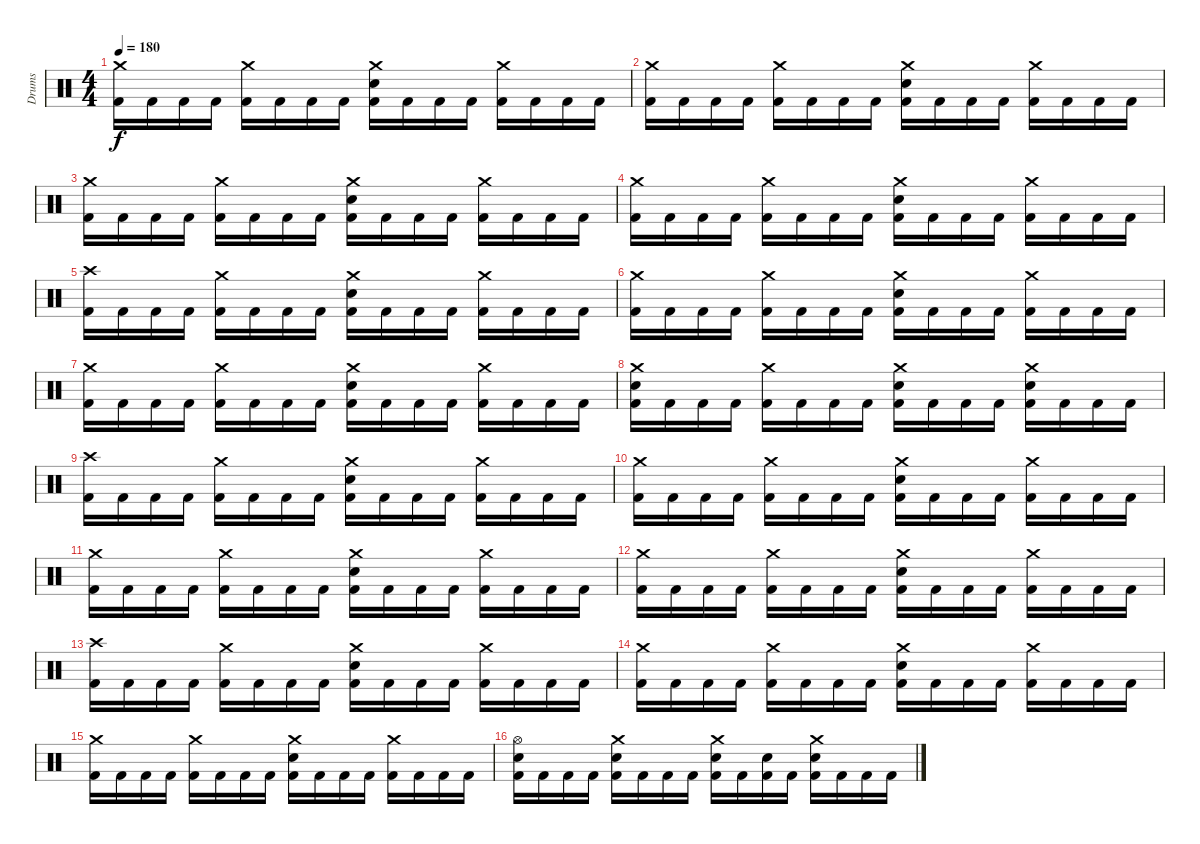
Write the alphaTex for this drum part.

\track ("Drums" "Drums") {instrument percussion}
\staff {score}
\articulation defaults
\ts (4 4)
\tempo 180
\clef neutral
\ks c
("Crash medium (hit)" "Kick (hit) 2").16{dy f} "Kick (hit) 2".16 "Kick (hit) 2".16 "Kick (hit) 2".16 ("Crash medium (hit)" "Kick (hit) 2").16 "Kick (hit) 2".16 "Kick (hit) 2".16 "Kick (hit) 2".16 ("Crash medium (hit)" "Electric Snare (hit)" "Kick (hit) 2").16 "Kick (hit) 2".16 "Kick (hit) 2".16 "Kick (hit) 2".16 ("Crash medium (hit)" "Kick (hit) 2").16 "Kick (hit) 2".16 "Kick (hit) 2".16 "Kick (hit) 2".16 |
("Crash medium (hit)" "Kick (hit) 2").16 "Kick (hit) 2".16 "Kick (hit) 2".16 "Kick (hit) 2".16 ("Crash medium (hit)" "Kick (hit) 2").16 "Kick (hit) 2".16 "Kick (hit) 2".16 "Kick (hit) 2".16 ("Crash medium (hit)" "Electric Snare (hit)" "Kick (hit) 2").16 "Kick (hit) 2".16 "Kick (hit) 2".16 "Kick (hit) 2".16 ("Crash medium (hit)" "Kick (hit) 2").16 "Kick (hit) 2".16 "Kick (hit) 2".16 "Kick (hit) 2".16 |
("Crash medium (hit)" "Kick (hit) 2").16 "Kick (hit) 2".16 "Kick (hit) 2".16 "Kick (hit) 2".16 ("Crash medium (hit)" "Kick (hit) 2").16 "Kick (hit) 2".16 "Kick (hit) 2".16 "Kick (hit) 2".16 ("Crash medium (hit)" "Electric Snare (hit)" "Kick (hit) 2").16 "Kick (hit) 2".16 "Kick (hit) 2".16 "Kick (hit) 2".16 ("Crash medium (hit)" "Kick (hit) 2").16 "Kick (hit) 2".16 "Kick (hit) 2".16 "Kick (hit) 2".16 |
("Crash medium (hit)" "Kick (hit) 2").16 "Kick (hit) 2".16 "Kick (hit) 2".16 "Kick (hit) 2".16 ("Crash medium (hit)" "Kick (hit) 2").16 "Kick (hit) 2".16 "Kick (hit) 2".16 "Kick (hit) 2".16 ("Crash medium (hit)" "Electric Snare (hit)" "Kick (hit) 2").16 "Kick (hit) 2".16 "Kick (hit) 2".16 "Kick (hit) 2".16 ("Crash medium (hit)" "Kick (hit) 2").16 "Kick (hit) 2".16 "Kick (hit) 2".16 "Kick (hit) 2".16 |
("Crash high (hit)" "Kick (hit) 2").16 "Kick (hit) 2".16 "Kick (hit) 2".16 "Kick (hit) 2".16 ("Crash medium (hit)" "Kick (hit) 2").16 "Kick (hit) 2".16 "Kick (hit) 2".16 "Kick (hit) 2".16 ("Crash medium (hit)" "Electric Snare (hit)" "Kick (hit) 2").16 "Kick (hit) 2".16 "Kick (hit) 2".16 "Kick (hit) 2".16 ("Crash medium (hit)" "Kick (hit) 2").16 "Kick (hit) 2".16 "Kick (hit) 2".16 "Kick (hit) 2".16 |
("Crash medium (hit)" "Kick (hit) 2").16 "Kick (hit) 2".16 "Kick (hit) 2".16 "Kick (hit) 2".16 ("Crash medium (hit)" "Kick (hit) 2").16 "Kick (hit) 2".16 "Kick (hit) 2".16 "Kick (hit) 2".16 ("Crash medium (hit)" "Electric Snare (hit)" "Kick (hit) 2").16 "Kick (hit) 2".16 "Kick (hit) 2".16 "Kick (hit) 2".16 ("Crash medium (hit)" "Kick (hit) 2").16 "Kick (hit) 2".16 "Kick (hit) 2".16 "Kick (hit) 2".16 |
("Crash medium (hit)" "Kick (hit) 2").16 "Kick (hit) 2".16 "Kick (hit) 2".16 "Kick (hit) 2".16 ("Crash medium (hit)" "Kick (hit) 2").16 "Kick (hit) 2".16 "Kick (hit) 2".16 "Kick (hit) 2".16 ("Crash medium (hit)" "Electric Snare (hit)" "Kick (hit) 2").16 "Kick (hit) 2".16 "Kick (hit) 2".16 "Kick (hit) 2".16 ("Crash medium (hit)" "Kick (hit) 2").16 "Kick (hit) 2".16 "Kick (hit) 2".16 "Kick (hit) 2".16 |
("Crash medium (hit)" "Electric Snare (hit)" "Kick (hit) 2").16 "Kick (hit) 2".16 "Kick (hit) 2".16 "Kick (hit) 2".16 ("Crash medium (hit)" "Kick (hit) 2").16 "Kick (hit) 2".16 "Kick (hit) 2".16 "Kick (hit) 2".16 ("Crash medium (hit)" "Electric Snare (hit)" "Kick (hit) 2").16 "Kick (hit) 2".16 "Kick (hit) 2".16 "Kick (hit) 2".16 ("Crash medium (hit)" "Electric Snare (hit)" "Kick (hit) 2").16 "Kick (hit) 2".16 "Kick (hit) 2".16 "Kick (hit) 2".16 |
("Crash high (hit)" "Kick (hit) 2").16 "Kick (hit) 2".16 "Kick (hit) 2".16 "Kick (hit) 2".16 ("Crash medium (hit)" "Kick (hit) 2").16 "Kick (hit) 2".16 "Kick (hit) 2".16 "Kick (hit) 2".16 ("Crash medium (hit)" "Electric Snare (hit)" "Kick (hit) 2").16 "Kick (hit) 2".16 "Kick (hit) 2".16 "Kick (hit) 2".16 ("Crash medium (hit)" "Kick (hit) 2").16 "Kick (hit) 2".16 "Kick (hit) 2".16 "Kick (hit) 2".16 |
("Crash medium (hit)" "Kick (hit) 2").16 "Kick (hit) 2".16 "Kick (hit) 2".16 "Kick (hit) 2".16 ("Crash medium (hit)" "Kick (hit) 2").16 "Kick (hit) 2".16 "Kick (hit) 2".16 "Kick (hit) 2".16 ("Crash medium (hit)" "Electric Snare (hit)" "Kick (hit) 2").16 "Kick (hit) 2".16 "Kick (hit) 2".16 "Kick (hit) 2".16 ("Crash medium (hit)" "Kick (hit) 2").16 "Kick (hit) 2".16 "Kick (hit) 2".16 "Kick (hit) 2".16 |
("Crash medium (hit)" "Kick (hit) 2").16 "Kick (hit) 2".16 "Kick (hit) 2".16 "Kick (hit) 2".16 ("Crash medium (hit)" "Kick (hit) 2").16 "Kick (hit) 2".16 "Kick (hit) 2".16 "Kick (hit) 2".16 ("Crash medium (hit)" "Electric Snare (hit)" "Kick (hit) 2").16 "Kick (hit) 2".16 "Kick (hit) 2".16 "Kick (hit) 2".16 ("Crash medium (hit)" "Kick (hit) 2").16 "Kick (hit) 2".16 "Kick (hit) 2".16 "Kick (hit) 2".16 |
("Crash medium (hit)" "Kick (hit) 2").16 "Kick (hit) 2".16 "Kick (hit) 2".16 "Kick (hit) 2".16 ("Crash medium (hit)" "Kick (hit) 2").16 "Kick (hit) 2".16 "Kick (hit) 2".16 "Kick (hit) 2".16 ("Crash medium (hit)" "Electric Snare (hit)" "Kick (hit) 2").16 "Kick (hit) 2".16 "Kick (hit) 2".16 "Kick (hit) 2".16 ("Crash medium (hit)" "Kick (hit) 2").16 "Kick (hit) 2".16 "Kick (hit) 2".16 "Kick (hit) 2".16 |
("Crash high (hit)" "Kick (hit) 2").16 "Kick (hit) 2".16 "Kick (hit) 2".16 "Kick (hit) 2".16 ("Crash medium (hit)" "Kick (hit) 2").16 "Kick (hit) 2".16 "Kick (hit) 2".16 "Kick (hit) 2".16 ("Crash medium (hit)" "Electric Snare (hit)" "Kick (hit) 2").16 "Kick (hit) 2".16 "Kick (hit) 2".16 "Kick (hit) 2".16 ("Crash medium (hit)" "Kick (hit) 2").16 "Kick (hit) 2".16 "Kick (hit) 2".16 "Kick (hit) 2".16 |
("Crash medium (hit)" "Kick (hit) 2").16 "Kick (hit) 2".16 "Kick (hit) 2".16 "Kick (hit) 2".16 ("Crash medium (hit)" "Kick (hit) 2").16 "Kick (hit) 2".16 "Kick (hit) 2".16 "Kick (hit) 2".16 ("Crash medium (hit)" "Electric Snare (hit)" "Kick (hit) 2").16 "Kick (hit) 2".16 "Kick (hit) 2".16 "Kick (hit) 2".16 ("Crash medium (hit)" "Kick (hit) 2").16 "Kick (hit) 2".16 "Kick (hit) 2".16 "Kick (hit) 2".16 |
("Crash medium (hit)" "Kick (hit) 2").16 "Kick (hit) 2".16 "Kick (hit) 2".16 "Kick (hit) 2".16 ("Crash medium (hit)" "Kick (hit) 2").16 "Kick (hit) 2".16 "Kick (hit) 2".16 "Kick (hit) 2".16 ("Crash medium (hit)" "Electric Snare (hit)" "Kick (hit) 2").16 "Kick (hit) 2".16 "Kick (hit) 2".16 "Kick (hit) 2".16 ("Crash medium (hit)" "Kick (hit) 2").16 "Kick (hit) 2".16 "Kick (hit) 2".16 "Kick (hit) 2".16 |
("Hi-Hat (open)" "Electric Snare (hit)" "Kick (hit) 2").16 "Kick (hit) 2".16 "Kick (hit) 2".16 "Kick (hit) 2".16 ("Crash medium (hit)" "Electric Snare (hit)" "Kick (hit) 2").16 "Kick (hit) 2".16 "Kick (hit) 2".16 "Kick (hit) 2".16 ("Crash medium (hit)" "Electric Snare (hit)" "Kick (hit) 2").16 "Kick (hit) 2".16 ("Electric Snare (hit)" "Kick (hit) 2").16 "Kick (hit) 2".16 ("Crash medium (hit)" "Electric Snare (hit)" "Kick (hit) 2").16 "Kick (hit) 2".16 "Kick (hit) 2".16 "Kick (hit) 2".16
